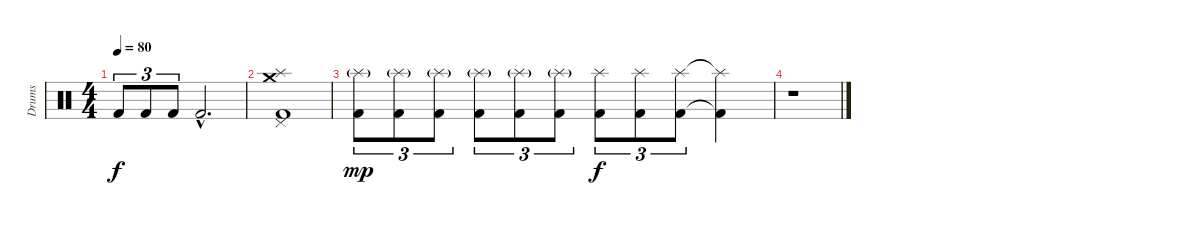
\track ("Drums" "Drums") {instrument percussion}
\staff {score}
\articulation defaults
\ts (4 4)
\tempo 80
\clef neutral
\ks c "Kick (hit) 2".8{tu (3 2) dy f} "Kick (hit) 2".8{tu (3 2)} "Kick (hit) 2".8{tu (3 2)} "Kick (hit) 2"{hac}.2{d}
|
("Kick (hit) 2" "Pedal Hi-Hat (hit)" "Splash (hit)" "Crash medium (hit)").1 |
("Kick (hit) 2" "Splash (hit)"{g}).8{tu (3 2) dy mp} ("Kick (hit) 2" "Splash (hit)"{g}).8{tu (3 2)} ("Kick (hit) 2" "Splash (hit)"{g}).8{tu (3 2)} ("Kick (hit) 2" "Splash (hit)"{g}).8{tu (3 2)} ("Kick (hit) 2" "Splash (hit)"{g}).8{tu (3 2)} ("Kick (hit) 2" "Splash (hit)"{g}).8{tu (3 2)} ("Kick (hit) 2" "Splash (hit)").8{tu (3 2) dy f} ("Kick (hit) 2" "Splash (hit)").8{tu (3 2)} ("Kick (hit) 2" "Splash (hit)").8{tu (3 2)} ("Kick (hit) 2"{t} "Splash (hit)"{t}).4 |
r.1
